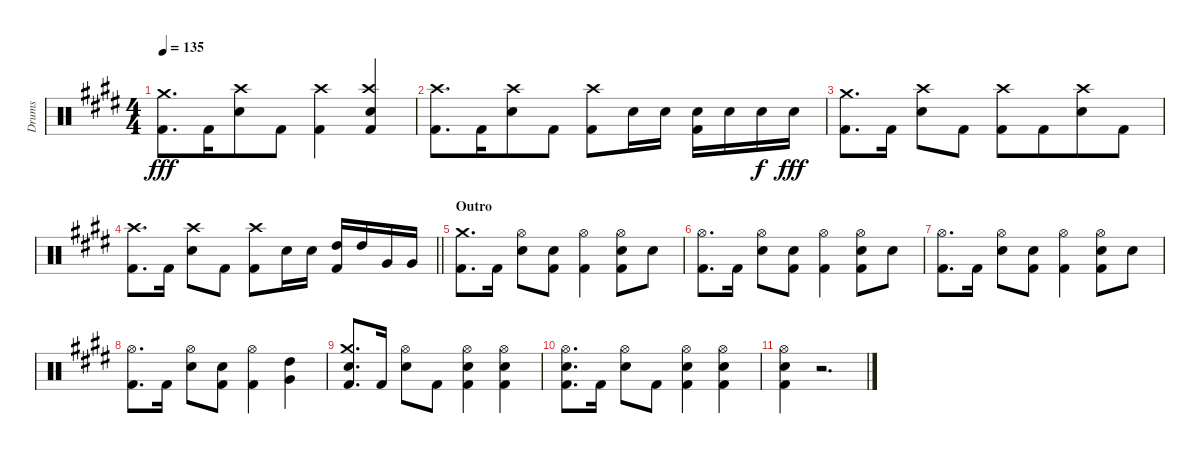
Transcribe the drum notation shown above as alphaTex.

\track ("Drums" "Drums") {instrument percussion}
\staff {score}
\articulation defaults
\ts (4 4)
\tempo 135
\clef neutral
\ks c#minor
("Kick (hit) 2" "Crash medium (hit)").8{d dy fff} "Kick (hit) 2".16{beam merge} ("Crash high (hit)" "Snare (hit) 2").8 "Kick (hit) 2".8 ("Kick (hit) 2" "Crash high (hit)").4{beam Down} ("Kick (hit) 2" "Crash high (hit)" "Snare (hit) 2").4 |
("Kick (hit) 2" "Crash high (hit)").8{d} "Kick (hit) 2".16{beam merge} ("Crash high (hit)" "Snare (hit) 2").8 "Kick (hit) 2".8 ("Kick (hit) 2" "Crash high (hit)").8 "Snare (hit) 2".16 "Snare (hit) 2".16 ("Kick (hit) 2" "Snare (hit) 2").16{beam Down} "Snare (hit) 2".16{beam Down} "Snare (hit) 2".16{dy f beam Down} "Snare (hit) 2".16{dy fff beam Down} |
("Crash medium (hit)" "Kick (hit) 2").8{d} "Kick (hit) 2".16{beam split} ("Crash high (hit)" "Snare (hit) 2").8 "Kick (hit) 2".8 ("Crash high (hit)" "Kick (hit) 2").8 "Kick (hit) 2".8{beam merge} ("Crash high (hit)" "Snare (hit) 2").8 "Kick (hit) 2".8 |
\barLineRight lightlight
("Crash high (hit)" "Kick (hit) 2").8{d} "Kick (hit) 2".16{beam split} ("Crash high (hit)" "Snare (hit) 2").8 "Kick (hit) 2".8 ("Crash high (hit)" "Kick (hit) 2").8 "Snare (hit) 2".16 "Snare (hit) 2".16 ("High Tom (hit)" "Kick (hit) 2").16 "High Tom (hit)".16 "Very Low Tom (hit)".16 "Very Low Tom (hit)".16 |
\section ("" "Outro")
("Crash medium (hit)" "Kick (hit) 2").8{d} "Kick (hit) 2".16 ("Hi-Hat (open)" "Snare (hit) 2").8 ("Kick (hit) 2" "Snare (hit) 2").8 ("Hi-Hat (open)" "Kick (hit) 2").4 ("Kick (hit) 2" "Hi-Hat (open)" "Snare (hit) 2").8 "Snare (hit) 2".8 |
("Hi-Hat (open)" "Kick (hit) 2").8{d} "Kick (hit) 2".16 ("Hi-Hat (open)" "Snare (hit) 2").8 ("Kick (hit) 2" "Snare (hit) 2").8 ("Hi-Hat (open)" "Kick (hit) 2").4 ("Kick (hit) 2" "Hi-Hat (open)" "Snare (hit) 2").8 "Snare (hit) 2".8 |
("Hi-Hat (open)" "Kick (hit) 2").8{d} "Kick (hit) 2".16 ("Hi-Hat (open)" "Snare (hit) 2").8 ("Kick (hit) 2" "Snare (hit) 2").8 ("Hi-Hat (open)" "Kick (hit) 2").4 ("Kick (hit) 2" "Hi-Hat (open)" "Snare (hit) 2").8 "Snare (hit) 2".8 |
("Hi-Hat (open)" "Kick (hit) 2").8{d} "Kick (hit) 2".16 ("Hi-Hat (open)" "Snare (hit) 2").8 ("Kick (hit) 2" "Snare (hit) 2").8 ("Hi-Hat (open)" "Kick (hit) 2").4 ("High Tom (hit)" "Very Low Tom (hit)").4 |
("Crash medium (hit)" "Snare (hit) 2" "Kick (hit) 2").8{d} "Kick (hit) 2".16 ("Hi-Hat (open)" "Snare (hit) 2").8 "Kick (hit) 2".8 ("Snare (hit) 2" "Hi-Hat (open)" "Kick (hit) 2").4{beam merge} ("Kick (hit) 2" "Hi-Hat (open)" "Snare (hit) 2").4 |
("Snare (hit) 2" "Hi-Hat (open)" "Kick (hit) 2").8{d} "Kick (hit) 2".16 ("Hi-Hat (open)" "Snare (hit) 2").8 "Kick (hit) 2".8 ("Snare (hit) 2" "Hi-Hat (open)" "Kick (hit) 2").4{beam merge} ("Kick (hit) 2" "Hi-Hat (open)" "Snare (hit) 2").4 |
("Snare (hit) 2" "Hi-Hat (open)" "Kick (hit) 2").4 r.2{d volume 0 beam Down}
